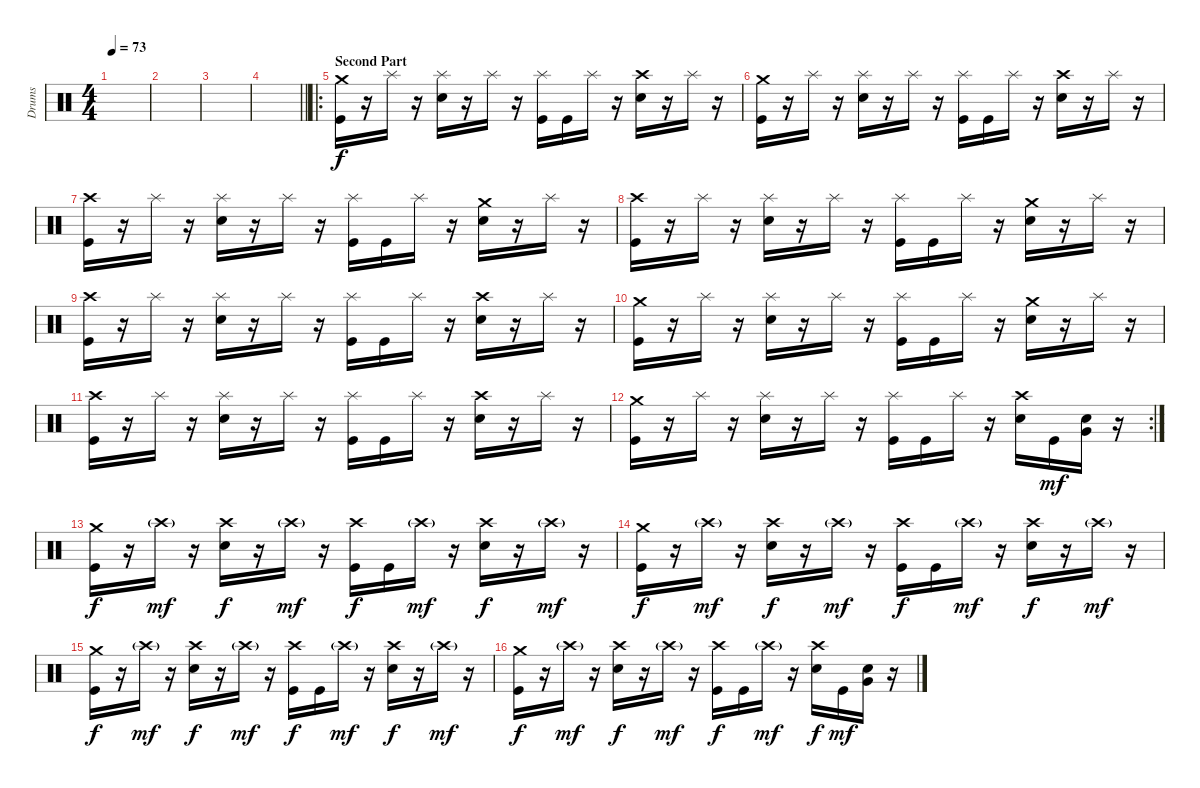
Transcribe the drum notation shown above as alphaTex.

\track ("Drums" "Drums") {instrument percussion}
\staff {score}
\articulation defaults
\ts (4 4)
\tempo 73
\clef neutral
\ks c
|
|
|
\barLineRight lightlight
|
\ro
\section ("" "Second Part")
("Crash medium (hit)" "Kick (hit)").16 r.16 "Splash (hit)".16 r.16 ("Splash (hit)" "Snare (hit) 2").16 r.16 "Splash (hit)".16 r.16 ("Splash (hit)" "Kick (hit)").16 "Kick (hit)".16 "Splash (hit)".16 r.16 ("Crash high (hit)" "Snare (hit) 2").16 r.16 "Splash (hit)".16 r.16 |
("Crash medium (hit)" "Kick (hit)").16 r.16 "Splash (hit)".16 r.16 ("Splash (hit)" "Snare (hit) 2").16 r.16 "Splash (hit)".16 r.16 ("Splash (hit)" "Kick (hit)").16 "Kick (hit)".16 "Splash (hit)".16 r.16 ("Crash high (hit)" "Snare (hit) 2").16 r.16 "Splash (hit)".16 r.16 |
("Crash high (hit)" "Kick (hit)").16 r.16 "Splash (hit)".16 r.16 ("Splash (hit)" "Snare (hit) 2").16 r.16 "Splash (hit)".16 r.16 ("Splash (hit)" "Kick (hit)").16 "Kick (hit)".16 "Splash (hit)".16 r.16 ("Crash medium (hit)" "Snare (hit) 2").16 r.16 "Splash (hit)".16 r.16 |
("Crash high (hit)" "Kick (hit)").16 r.16 "Splash (hit)".16 r.16 ("Splash (hit)" "Snare (hit) 2").16 r.16 "Splash (hit)".16 r.16 ("Splash (hit)" "Kick (hit)").16 "Kick (hit)".16 "Splash (hit)".16 r.16 ("Crash medium (hit)" "Snare (hit) 2").16 r.16 "Splash (hit)".16 r.16 |
("Crash high (hit)" "Kick (hit)").16 r.16 "Splash (hit)".16 r.16 ("Splash (hit)" "Snare (hit) 2").16 r.16 "Splash (hit)".16 r.16 ("Splash (hit)" "Kick (hit)").16 "Kick (hit)".16 "Splash (hit)".16 r.16 ("Crash high (hit)" "Snare (hit) 2").16 r.16 "Splash (hit)".16 r.16 |
("Crash medium (hit)" "Kick (hit)").16 r.16 "Splash (hit)".16 r.16 ("Splash (hit)" "Snare (hit) 2").16 r.16 "Splash (hit)".16 r.16 ("Splash (hit)" "Kick (hit)").16 "Kick (hit)".16 "Splash (hit)".16 r.16 ("Crash medium (hit)" "Snare (hit) 2").16 r.16 "Splash (hit)".16 r.16 |
("Crash high (hit)" "Kick (hit)").16 r.16 "Splash (hit)".16 r.16 ("Splash (hit)" "Snare (hit) 2").16 r.16 "Splash (hit)".16 r.16 ("Splash (hit)" "Kick (hit)").16 "Kick (hit)".16 "Splash (hit)".16 r.16 ("Crash high (hit)" "Snare (hit) 2").16 r.16 "Splash (hit)".16 r.16 |
\rc 2
("Crash medium (hit)" "Kick (hit)").16 r.16 "Splash (hit)".16 r.16 ("Splash (hit)" "Snare (hit) 2").16 r.16 "Splash (hit)".16 r.16 ("Splash (hit)" "Kick (hit)").16 "Kick (hit)".16 "Splash (hit)".16 r.16 ("Crash high (hit)" "Snare (hit) 2").16 "Kick (hit)".16{dy mf} ("Snare (hit) 2" "Very Low Tom (hit)").16 r.16 |
("Crash medium (hit)" "Kick (hit)").16{dy f} r.16 "Crash high (hit)"{g}.16{dy mf} r.16 ("Crash high (hit)" "Snare (hit) 2").16{dy f} r.16 "Crash high (hit)"{g}.16{dy mf} r.16 ("Crash high (hit)" "Kick (hit)").16{dy f} "Kick (hit)".16 "Crash high (hit)"{g}.16{dy mf} r.16 ("Crash high (hit)" "Snare (hit) 2").16{dy f} r.16 "Crash high (hit)"{g}.16{dy mf} r.16 |
("Crash medium (hit)" "Kick (hit)").16{dy f} r.16 "Crash high (hit)"{g}.16{dy mf} r.16 ("Crash high (hit)" "Snare (hit) 2").16{dy f} r.16 "Crash high (hit)"{g}.16{dy mf} r.16 ("Crash high (hit)" "Kick (hit)").16{dy f} "Kick (hit)".16 "Crash high (hit)"{g}.16{dy mf} r.16 ("Crash high (hit)" "Snare (hit) 2").16{dy f} r.16 "Crash high (hit)"{g}.16{dy mf} r.16 |
("Crash medium (hit)" "Kick (hit)").16{dy f} r.16 "Crash high (hit)"{g}.16{dy mf} r.16 ("Crash high (hit)" "Snare (hit) 2").16{dy f} r.16 "Crash high (hit)"{g}.16{dy mf} r.16 ("Crash high (hit)" "Kick (hit)").16{dy f} "Kick (hit)".16 "Crash high (hit)"{g}.16{dy mf} r.16 ("Crash high (hit)" "Snare (hit) 2").16{dy f} r.16 "Crash high (hit)"{g}.16{dy mf} r.16 |
("Crash medium (hit)" "Kick (hit)").16{dy f} r.16 "Crash high (hit)"{g}.16{dy mf} r.16 ("Crash high (hit)" "Snare (hit) 2").16{dy f} r.16 "Crash high (hit)"{g}.16{dy mf} r.16 ("Crash high (hit)" "Kick (hit)").16{dy f} "Kick (hit)".16 "Crash high (hit)"{g}.16{dy mf} r.16 ("Crash high (hit)" "Snare (hit) 2").16{dy f} "Kick (hit)".16{dy mf} ("Snare (hit) 2" "Very Low Tom (hit)").16 r.16
